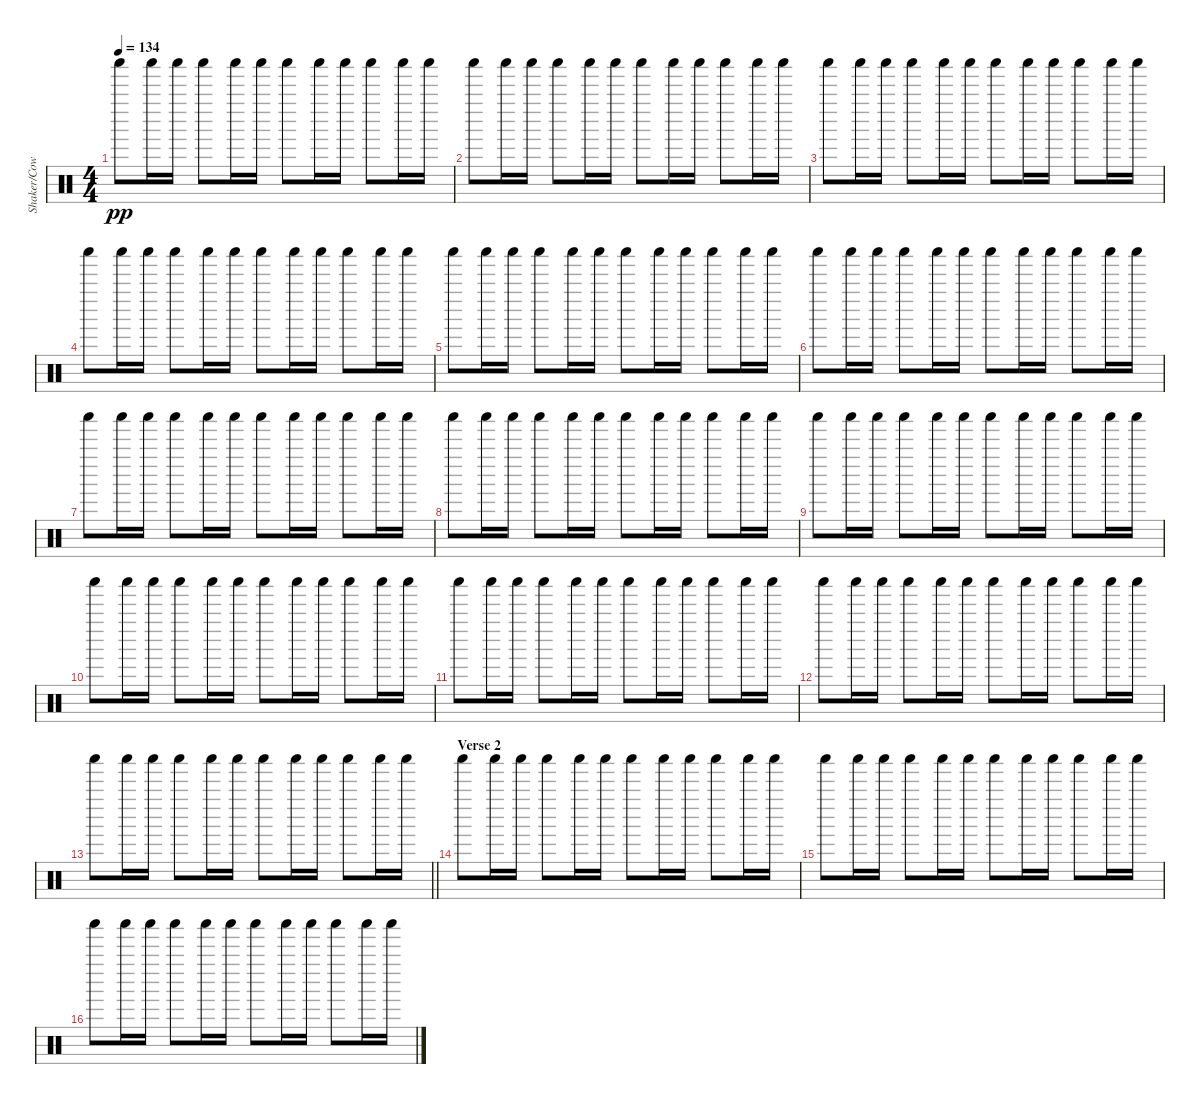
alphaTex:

\track ("Shaker/Cowbell" "Shaker/Cow") {instrument percussion}
\staff {score}
\articulation defaults
\ts (4 4)
\tempo 134
\clef neutral
\ks c "Shaker (hit)".8{dy pp} "Shaker (hit)".16 "Shaker (hit)".16 "Shaker (hit)".8 "Shaker (hit)".16 "Shaker (hit)".16 "Shaker (hit)".8 "Shaker (hit)".16 "Shaker (hit)".16 "Shaker (hit)".8 "Shaker (hit)".16 "Shaker (hit)".16
|
"Shaker (hit)".8 "Shaker (hit)".16 "Shaker (hit)".16 "Shaker (hit)".8 "Shaker (hit)".16 "Shaker (hit)".16 "Shaker (hit)".8 "Shaker (hit)".16 "Shaker (hit)".16 "Shaker (hit)".8 "Shaker (hit)".16 "Shaker (hit)".16 |
"Shaker (hit)".8 "Shaker (hit)".16 "Shaker (hit)".16 "Shaker (hit)".8 "Shaker (hit)".16 "Shaker (hit)".16 "Shaker (hit)".8 "Shaker (hit)".16 "Shaker (hit)".16 "Shaker (hit)".8 "Shaker (hit)".16 "Shaker (hit)".16 |
"Shaker (hit)".8 "Shaker (hit)".16 "Shaker (hit)".16 "Shaker (hit)".8 "Shaker (hit)".16 "Shaker (hit)".16 "Shaker (hit)".8 "Shaker (hit)".16 "Shaker (hit)".16 "Shaker (hit)".8 "Shaker (hit)".16 "Shaker (hit)".16 |
"Shaker (hit)".8 "Shaker (hit)".16 "Shaker (hit)".16 "Shaker (hit)".8 "Shaker (hit)".16 "Shaker (hit)".16 "Shaker (hit)".8 "Shaker (hit)".16 "Shaker (hit)".16 "Shaker (hit)".8 "Shaker (hit)".16 "Shaker (hit)".16 |
"Shaker (hit)".8 "Shaker (hit)".16 "Shaker (hit)".16 "Shaker (hit)".8 "Shaker (hit)".16 "Shaker (hit)".16 "Shaker (hit)".8 "Shaker (hit)".16 "Shaker (hit)".16 "Shaker (hit)".8 "Shaker (hit)".16 "Shaker (hit)".16 |
"Shaker (hit)".8 "Shaker (hit)".16 "Shaker (hit)".16 "Shaker (hit)".8 "Shaker (hit)".16 "Shaker (hit)".16 "Shaker (hit)".8 "Shaker (hit)".16 "Shaker (hit)".16 "Shaker (hit)".8 "Shaker (hit)".16 "Shaker (hit)".16 |
"Shaker (hit)".8 "Shaker (hit)".16 "Shaker (hit)".16 "Shaker (hit)".8 "Shaker (hit)".16 "Shaker (hit)".16 "Shaker (hit)".8 "Shaker (hit)".16 "Shaker (hit)".16 "Shaker (hit)".8 "Shaker (hit)".16 "Shaker (hit)".16 |
"Shaker (hit)".8 "Shaker (hit)".16 "Shaker (hit)".16 "Shaker (hit)".8 "Shaker (hit)".16 "Shaker (hit)".16 "Shaker (hit)".8 "Shaker (hit)".16 "Shaker (hit)".16 "Shaker (hit)".8 "Shaker (hit)".16 "Shaker (hit)".16 |
"Shaker (hit)".8 "Shaker (hit)".16 "Shaker (hit)".16 "Shaker (hit)".8 "Shaker (hit)".16 "Shaker (hit)".16 "Shaker (hit)".8 "Shaker (hit)".16 "Shaker (hit)".16 "Shaker (hit)".8 "Shaker (hit)".16 "Shaker (hit)".16 |
"Shaker (hit)".8 "Shaker (hit)".16 "Shaker (hit)".16 "Shaker (hit)".8 "Shaker (hit)".16 "Shaker (hit)".16 "Shaker (hit)".8 "Shaker (hit)".16 "Shaker (hit)".16 "Shaker (hit)".8 "Shaker (hit)".16 "Shaker (hit)".16 |
"Shaker (hit)".8 "Shaker (hit)".16 "Shaker (hit)".16 "Shaker (hit)".8 "Shaker (hit)".16 "Shaker (hit)".16 "Shaker (hit)".8 "Shaker (hit)".16 "Shaker (hit)".16 "Shaker (hit)".8 "Shaker (hit)".16 "Shaker (hit)".16 |
\barLineRight lightlight "Shaker (hit)".8 "Shaker (hit)".16 "Shaker (hit)".16 "Shaker (hit)".8 "Shaker (hit)".16 "Shaker (hit)".16 "Shaker (hit)".8 "Shaker (hit)".16 "Shaker (hit)".16 "Shaker (hit)".8 "Shaker (hit)".16 "Shaker (hit)".16
|
\section ("" "Verse 2")
"Shaker (hit)".8 "Shaker (hit)".16 "Shaker (hit)".16 "Shaker (hit)".8 "Shaker (hit)".16 "Shaker (hit)".16 "Shaker (hit)".8 "Shaker (hit)".16 "Shaker (hit)".16 "Shaker (hit)".8 "Shaker (hit)".16 "Shaker (hit)".16 |
"Shaker (hit)".8 "Shaker (hit)".16 "Shaker (hit)".16 "Shaker (hit)".8 "Shaker (hit)".16 "Shaker (hit)".16 "Shaker (hit)".8 "Shaker (hit)".16 "Shaker (hit)".16 "Shaker (hit)".8 "Shaker (hit)".16 "Shaker (hit)".16 |
"Shaker (hit)".8 "Shaker (hit)".16 "Shaker (hit)".16 "Shaker (hit)".8 "Shaker (hit)".16 "Shaker (hit)".16 "Shaker (hit)".8 "Shaker (hit)".16 "Shaker (hit)".16 "Shaker (hit)".8 "Shaker (hit)".16 "Shaker (hit)".16
